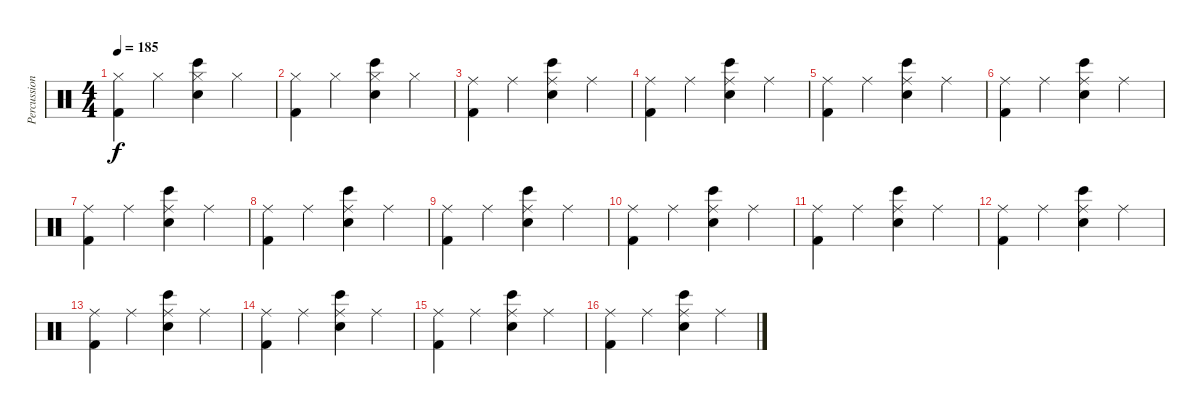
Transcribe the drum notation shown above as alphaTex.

\track ("Percussion" "Percussion") {instrument percussion}
\staff {score}
\articulation defaults
\ts (4 4)
\tempo 185
\clef neutral
\ks c
("Hi-Hat (closed)" "Kick (hit) 2").4{dy f} "Hi-Hat (closed)".4 ("Bongo High (hit)" "Electric Snare (hit)" "Hi-Hat (closed)").4 "Hi-Hat (closed)".4 |
("Hi-Hat (closed)" "Kick (hit) 2").4 "Hi-Hat (closed)".4 ("Bongo High (hit)" "Electric Snare (hit)" "Hi-Hat (closed)").4 "Hi-Hat (closed)".4 |
("Ride (middle)" "Kick (hit) 2").4 "Ride (middle)".4 ("Bongo High (hit)" "Electric Snare (hit)" "Ride (middle)").4 "Ride (middle)".4 |
("Ride (middle)" "Kick (hit) 2").4 "Ride (middle)".4 ("Bongo High (hit)" "Electric Snare (hit)" "Ride (middle)").4 "Ride (middle)".4 |
("Ride (middle)" "Kick (hit) 2").4 "Ride (middle)".4 ("Bongo High (hit)" "Electric Snare (hit)" "Ride (middle)").4 "Ride (middle)".4 |
("Ride (middle)" "Kick (hit) 2").4 "Ride (middle)".4 ("Bongo High (hit)" "Electric Snare (hit)" "Ride (middle)").4 "Ride (middle)".4 |
("Ride (middle)" "Kick (hit) 2").4 "Ride (middle)".4 ("Bongo High (hit)" "Electric Snare (hit)" "Ride (middle)").4 "Ride (middle)".4 |
("Ride (middle)" "Kick (hit) 2").4 "Ride (middle)".4 ("Bongo High (hit)" "Electric Snare (hit)" "Ride (middle)").4 "Ride (middle)".4 |
("Ride (middle)" "Kick (hit) 2").4 "Ride (middle)".4 ("Bongo High (hit)" "Electric Snare (hit)" "Ride (middle)").4 "Ride (middle)".4 |
("Ride (middle)" "Kick (hit) 2").4 "Ride (middle)".4 ("Bongo High (hit)" "Electric Snare (hit)" "Ride (middle)").4 "Ride (middle)".4 |
("Ride (middle)" "Kick (hit) 2").4 "Ride (middle)".4 ("Bongo High (hit)" "Electric Snare (hit)" "Ride (middle)").4 "Ride (middle)".4 |
("Ride (middle)" "Kick (hit) 2").4 "Ride (middle)".4 ("Bongo High (hit)" "Electric Snare (hit)" "Ride (middle)").4 "Ride (middle)".4 |
("Ride (middle)" "Kick (hit) 2").4 "Ride (middle)".4 ("Bongo High (hit)" "Electric Snare (hit)" "Ride (middle)").4 "Ride (middle)".4 |
("Ride (middle)" "Kick (hit) 2").4 "Ride (middle)".4 ("Bongo High (hit)" "Electric Snare (hit)" "Ride (middle)").4 "Ride (middle)".4 |
("Ride (middle)" "Kick (hit) 2").4 "Ride (middle)".4 ("Bongo High (hit)" "Electric Snare (hit)" "Ride (middle)").4 "Ride (middle)".4 |
("Ride (middle)" "Kick (hit) 2").4 "Ride (middle)".4 ("Bongo High (hit)" "Electric Snare (hit)" "Ride (middle)").4 "Ride (middle)".4
